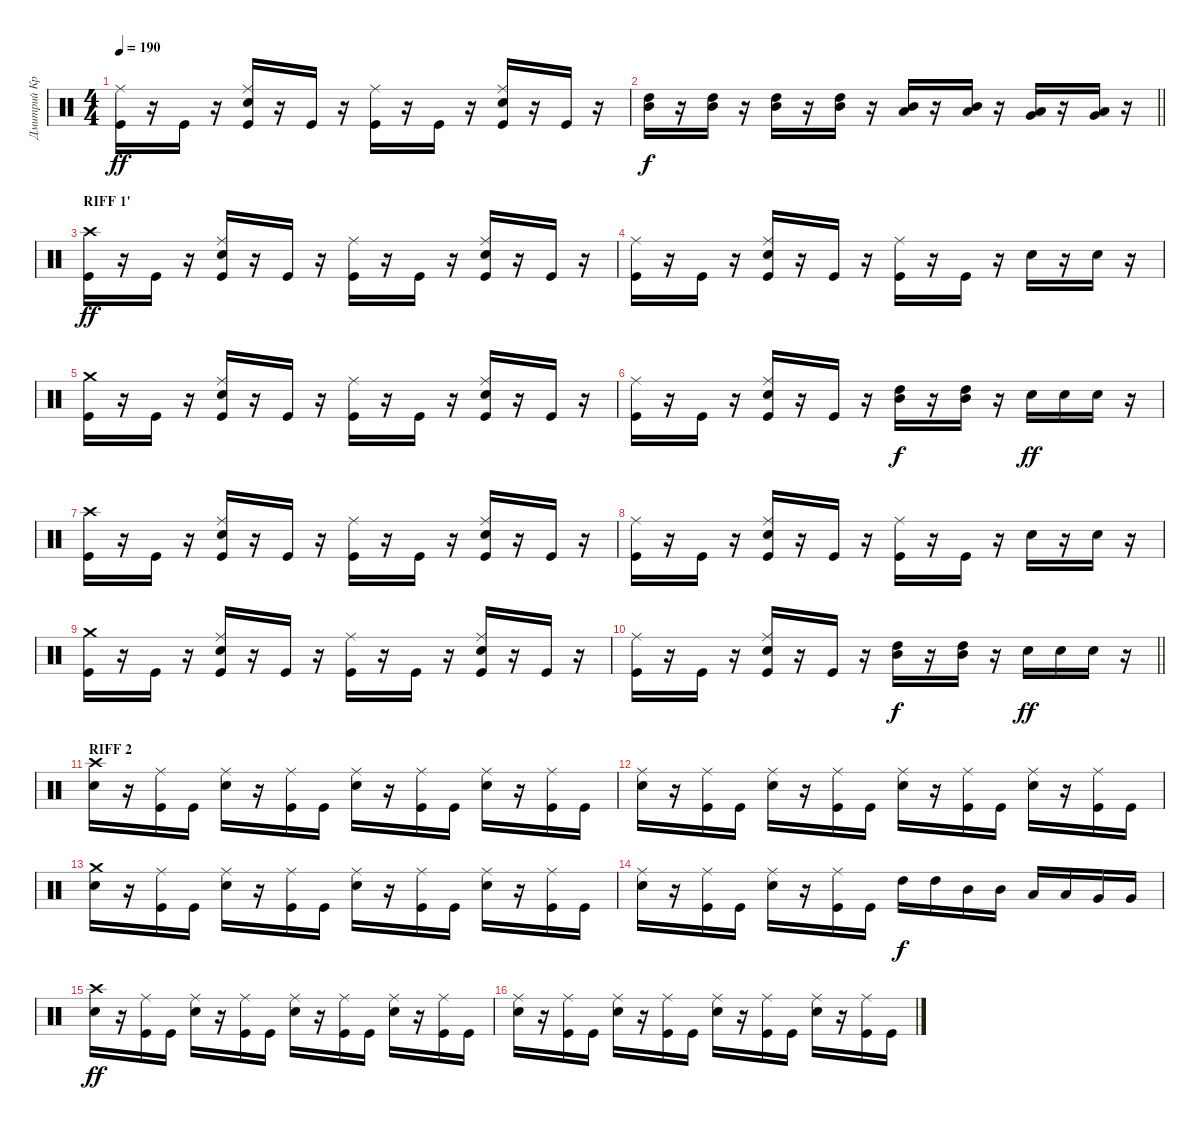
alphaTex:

\track ("Дмитрий Кривенков" "Дмитрий Кр") {instrument percussion}
\staff {score}
\articulation defaults
\ts (4 4)
\tempo 190
\clef neutral
\ks c
("Kick (hit)" "Ride (middle)").16{dy ff} r.16 "Kick (hit)".16 r.16 ("Snare (hit) 2" "Kick (hit)" "Ride (middle)").16 r.16 "Kick (hit)".16 r.16 ("Kick (hit)" "Ride (middle)").16 r.16 "Kick (hit)".16 r.16 ("Snare (hit) 2" "Kick (hit)" "Ride (middle)").16 r.16 "Kick (hit)".16 r.16 |
\barLineRight lightlight
("High Tom (hit)" "Mid Tom (hit)").16{dy f} r.16 ("Mid Tom (hit)" "High Tom (hit)").16 r.16 ("Mid Tom (hit)" "High Tom (hit)").16 r.16 ("Mid Tom (hit)" "High Tom (hit)").16 r.16 ("Low Tom (hit)" "Mid Tom (hit)").16 r.16 ("Low Tom (hit)" "Mid Tom (hit)").16 r.16 ("Very Low Tom (hit)" "Low Tom (hit)").16 r.16 ("Very Low Tom (hit)" "Low Tom (hit)").16 r.16 |
\section ("" "RIFF 1'")
("Crash high (hit)" "Kick (hit)").16{dy ff} r.16 "Kick (hit)".16 r.16 ("Ride (middle)" "Kick (hit)" "Snare (hit) 2").16 r.16 "Kick (hit)".16 r.16 ("Ride (middle)" "Kick (hit)").16 r.16 "Kick (hit)".16 r.16 ("Ride (middle)" "Kick (hit)" "Snare (hit) 2").16 r.16 "Kick (hit)".16 r.16 |
("Ride (middle)" "Kick (hit)").16 r.16 "Kick (hit)".16 r.16 ("Ride (middle)" "Kick (hit)" "Snare (hit) 2").16 r.16 "Kick (hit)".16 r.16 ("Ride (middle)" "Kick (hit)").16 r.16 "Kick (hit)".16 r.16 "Snare (hit) 2".16 r.16 "Snare (hit) 2".16 r.16 |
("Crash medium (hit)" "Kick (hit)").16 r.16 "Kick (hit)".16 r.16 ("Kick (hit)" "Snare (hit) 2" "Ride (middle)").16 r.16 "Kick (hit)".16 r.16 ("Kick (hit)" "Ride (middle)").16 r.16 "Kick (hit)".16 r.16 ("Kick (hit)" "Snare (hit) 2" "Ride (middle)").16 r.16 "Kick (hit)".16 r.16 |
("Ride (middle)" "Kick (hit)").16 r.16 "Kick (hit)".16 r.16 ("Ride (middle)" "Kick (hit)" "Snare (hit) 2").16 r.16 "Kick (hit)".16 r.16 ("Mid Tom (hit)" "High Tom (hit)").16{dy f} r.16 ("Mid Tom (hit)" "High Tom (hit)").16 r.16 "Snare (hit) 2".16{dy ff} "Snare (hit) 2".16 "Snare (hit) 2".16 r.16 |
("Crash high (hit)" "Kick (hit)").16 r.16 "Kick (hit)".16 r.16 ("Ride (middle)" "Kick (hit)" "Snare (hit) 2").16 r.16 "Kick (hit)".16 r.16 ("Ride (middle)" "Kick (hit)").16 r.16 "Kick (hit)".16 r.16 ("Ride (middle)" "Kick (hit)" "Snare (hit) 2").16 r.16 "Kick (hit)".16 r.16 |
("Ride (middle)" "Kick (hit)").16 r.16 "Kick (hit)".16 r.16 ("Ride (middle)" "Kick (hit)" "Snare (hit) 2").16 r.16 "Kick (hit)".16 r.16 ("Ride (middle)" "Kick (hit)").16 r.16 "Kick (hit)".16 r.16 "Snare (hit) 2".16 r.16 "Snare (hit) 2".16 r.16 |
("Crash medium (hit)" "Kick (hit)").16 r.16 "Kick (hit)".16 r.16 ("Kick (hit)" "Snare (hit) 2" "Ride (middle)").16 r.16 "Kick (hit)".16 r.16 ("Kick (hit)" "Ride (middle)").16 r.16 "Kick (hit)".16 r.16 ("Kick (hit)" "Snare (hit) 2" "Ride (middle)").16 r.16 "Kick (hit)".16 r.16 |
\barLineRight lightlight
("Ride (middle)" "Kick (hit)").16 r.16 "Kick (hit)".16 r.16 ("Ride (middle)" "Kick (hit)" "Snare (hit) 2").16 r.16 "Kick (hit)".16 r.16 ("Mid Tom (hit)" "High Tom (hit)").16{dy f} r.16 ("Mid Tom (hit)" "High Tom (hit)").16 r.16 "Snare (hit) 2".16{dy ff} "Snare (hit) 2".16 "Snare (hit) 2".16 r.16 |
\section ("" "RIFF 2")
("Snare (hit) 2" "Crash high (hit)").16 r.16 ("Ride (middle)" "Kick (hit)").16 "Kick (hit)".16 ("Ride (middle)" "Snare (hit) 2").16 r.16 ("Ride (middle)" "Kick (hit)").16 "Kick (hit)".16 ("Ride (middle)" "Snare (hit) 2").16 r.16 ("Kick (hit)" "Ride (middle)").16 "Kick (hit)".16 ("Ride (middle)" "Snare (hit) 2").16 r.16 ("Ride (middle)" "Kick (hit)").16 "Kick (hit)".16 |
("Snare (hit) 2" "Ride (middle)").16 r.16 ("Ride (middle)" "Kick (hit)").16 "Kick (hit)".16 ("Ride (middle)" "Snare (hit) 2").16 r.16 ("Ride (middle)" "Kick (hit)").16 "Kick (hit)".16 ("Ride (middle)" "Snare (hit) 2").16 r.16 ("Ride (middle)" "Kick (hit)").16 "Kick (hit)".16 ("Ride (middle)" "Snare (hit) 2").16 r.16 ("Ride (middle)" "Kick (hit)").16 "Kick (hit)".16 |
("Crash medium (hit)" "Snare (hit) 2").16 r.16 ("Ride (middle)" "Kick (hit)").16 "Kick (hit)".16 ("Ride (middle)" "Snare (hit) 2").16 r.16 ("Ride (middle)" "Kick (hit)").16 "Kick (hit)".16 ("Ride (middle)" "Snare (hit) 2").16 r.16 ("Ride (middle)" "Kick (hit)").16 "Kick (hit)".16 ("Ride (middle)" "Snare (hit) 2").16 r.16 ("Ride (middle)" "Kick (hit)").16 "Kick (hit)".16 |
("Ride (middle)" "Snare (hit) 2").16 r.16 ("Ride (middle)" "Kick (hit)").16 "Kick (hit)".16 ("Ride (middle)" "Snare (hit) 2").16 r.16 ("Ride (middle)" "Kick (hit)").16 "Kick (hit)".16 "High Tom (hit)".16{dy f} "High Tom (hit)".16 "Mid Tom (hit)".16 "Mid Tom (hit)".16 "Low Tom (hit)".16 "Low Tom (hit)".16 "Very Low Tom (hit)".16 "Very Low Tom (hit)".16 |
("Snare (hit) 2" "Crash high (hit)").16{dy ff} r.16 ("Ride (middle)" "Kick (hit)").16 "Kick (hit)".16 ("Ride (middle)" "Snare (hit) 2").16 r.16 ("Ride (middle)" "Kick (hit)").16 "Kick (hit)".16 ("Ride (middle)" "Snare (hit) 2").16 r.16 ("Kick (hit)" "Ride (middle)").16 "Kick (hit)".16 ("Ride (middle)" "Snare (hit) 2").16 r.16 ("Ride (middle)" "Kick (hit)").16 "Kick (hit)".16 |
("Snare (hit) 2" "Ride (middle)").16 r.16 ("Ride (middle)" "Kick (hit)").16 "Kick (hit)".16 ("Ride (middle)" "Snare (hit) 2").16 r.16 ("Ride (middle)" "Kick (hit)").16 "Kick (hit)".16 ("Ride (middle)" "Snare (hit) 2").16 r.16 ("Ride (middle)" "Kick (hit)").16 "Kick (hit)".16 ("Ride (middle)" "Snare (hit) 2").16 r.16 ("Ride (middle)" "Kick (hit)").16 "Kick (hit)".16
